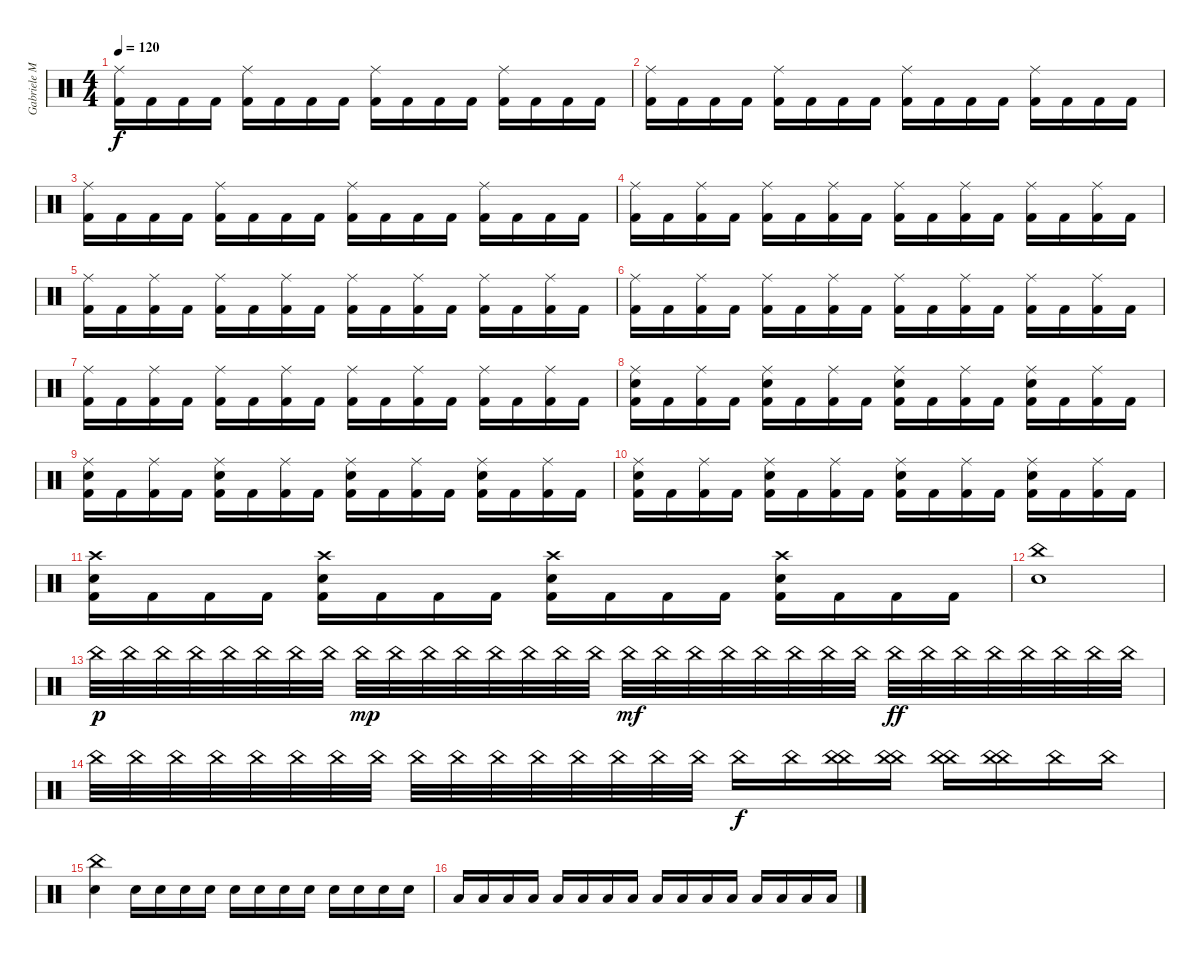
\track ("Gabriele Malatesta" "Gabriele M") {instrument percussion}
\staff {score}
\articulation defaults
\ts (4 4)
\tempo 120
\clef neutral
\ks c
("Ride (middle)" "Kick (hit) 2").16{dy f} "Kick (hit) 2".16 "Kick (hit) 2".16 "Kick (hit) 2".16 ("Ride (middle)" "Kick (hit) 2").16 "Kick (hit) 2".16 "Kick (hit) 2".16 "Kick (hit) 2".16 ("Ride (middle)" "Kick (hit) 2").16 "Kick (hit) 2".16 "Kick (hit) 2".16 "Kick (hit) 2".16 ("Ride (middle)" "Kick (hit) 2").16 "Kick (hit) 2".16 "Kick (hit) 2".16 "Kick (hit) 2".16 |
("Ride (middle)" "Kick (hit) 2").16 "Kick (hit) 2".16 "Kick (hit) 2".16 "Kick (hit) 2".16 ("Ride (middle)" "Kick (hit) 2").16 "Kick (hit) 2".16 "Kick (hit) 2".16 "Kick (hit) 2".16 ("Ride (middle)" "Kick (hit) 2").16 "Kick (hit) 2".16 "Kick (hit) 2".16 "Kick (hit) 2".16 ("Ride (middle)" "Kick (hit) 2").16 "Kick (hit) 2".16 "Kick (hit) 2".16 "Kick (hit) 2".16 |
("Ride (middle)" "Kick (hit) 2").16 "Kick (hit) 2".16 "Kick (hit) 2".16 "Kick (hit) 2".16 ("Ride (middle)" "Kick (hit) 2").16 "Kick (hit) 2".16 "Kick (hit) 2".16 "Kick (hit) 2".16 ("Ride (middle)" "Kick (hit) 2").16 "Kick (hit) 2".16 "Kick (hit) 2".16 "Kick (hit) 2".16 ("Ride (middle)" "Kick (hit) 2").16 "Kick (hit) 2".16 "Kick (hit) 2".16 "Kick (hit) 2".16 |
("Ride (middle)" "Kick (hit) 2").16 "Kick (hit) 2".16 ("Ride (middle)" "Kick (hit) 2").16 "Kick (hit) 2".16 ("Ride (middle)" "Kick (hit) 2").16 "Kick (hit) 2".16 ("Ride (middle)" "Kick (hit) 2").16 "Kick (hit) 2".16 ("Ride (middle)" "Kick (hit) 2").16 "Kick (hit) 2".16 ("Ride (middle)" "Kick (hit) 2").16 "Kick (hit) 2".16 ("Ride (middle)" "Kick (hit) 2").16 "Kick (hit) 2".16 ("Ride (middle)" "Kick (hit) 2").16 "Kick (hit) 2".16 |
("Ride (middle)" "Kick (hit) 2").16 "Kick (hit) 2".16 ("Ride (middle)" "Kick (hit) 2").16 "Kick (hit) 2".16 ("Ride (middle)" "Kick (hit) 2").16 "Kick (hit) 2".16 ("Ride (middle)" "Kick (hit) 2").16 "Kick (hit) 2".16 ("Ride (middle)" "Kick (hit) 2").16 "Kick (hit) 2".16 ("Ride (middle)" "Kick (hit) 2").16 "Kick (hit) 2".16 ("Ride (middle)" "Kick (hit) 2").16 "Kick (hit) 2".16 ("Ride (middle)" "Kick (hit) 2").16 "Kick (hit) 2".16 |
("Ride (middle)" "Kick (hit) 2").16 "Kick (hit) 2".16 ("Ride (middle)" "Kick (hit) 2").16 "Kick (hit) 2".16 ("Ride (middle)" "Kick (hit) 2").16 "Kick (hit) 2".16 ("Ride (middle)" "Kick (hit) 2").16 "Kick (hit) 2".16 ("Ride (middle)" "Kick (hit) 2").16 "Kick (hit) 2".16 ("Ride (middle)" "Kick (hit) 2").16 "Kick (hit) 2".16 ("Ride (middle)" "Kick (hit) 2").16 "Kick (hit) 2".16 ("Ride (middle)" "Kick (hit) 2").16 "Kick (hit) 2".16 |
("Ride (middle)" "Kick (hit) 2").16 "Kick (hit) 2".16 ("Ride (middle)" "Kick (hit) 2").16 "Kick (hit) 2".16 ("Ride (middle)" "Kick (hit) 2").16 "Kick (hit) 2".16 ("Ride (middle)" "Kick (hit) 2").16 "Kick (hit) 2".16 ("Ride (middle)" "Kick (hit) 2").16 "Kick (hit) 2".16 ("Ride (middle)" "Kick (hit) 2").16 "Kick (hit) 2".16 ("Ride (middle)" "Kick (hit) 2").16 "Kick (hit) 2".16 ("Ride (middle)" "Kick (hit) 2").16 "Kick (hit) 2".16 |
("Ride (middle)" "Electric Snare (hit)" "Kick (hit) 2").16 "Kick (hit) 2".16 ("Ride (middle)" "Kick (hit) 2").16 "Kick (hit) 2".16 ("Ride (middle)" "Electric Snare (hit)" "Kick (hit) 2").16 "Kick (hit) 2".16 ("Ride (middle)" "Kick (hit) 2").16 "Kick (hit) 2".16 ("Ride (middle)" "Electric Snare (hit)" "Kick (hit) 2").16 "Kick (hit) 2".16 ("Ride (middle)" "Kick (hit) 2").16 "Kick (hit) 2".16 ("Ride (middle)" "Electric Snare (hit)" "Kick (hit) 2").16 "Kick (hit) 2".16 ("Ride (middle)" "Kick (hit) 2").16 "Kick (hit) 2".16 |
("Ride (middle)" "Electric Snare (hit)" "Kick (hit) 2").16 "Kick (hit) 2".16 ("Ride (middle)" "Kick (hit) 2").16 "Kick (hit) 2".16 ("Ride (middle)" "Electric Snare (hit)" "Kick (hit) 2").16 "Kick (hit) 2".16 ("Ride (middle)" "Kick (hit) 2").16 "Kick (hit) 2".16 ("Ride (middle)" "Electric Snare (hit)" "Kick (hit) 2").16 "Kick (hit) 2".16 ("Ride (middle)" "Kick (hit) 2").16 "Kick (hit) 2".16 ("Ride (middle)" "Electric Snare (hit)" "Kick (hit) 2").16 "Kick (hit) 2".16 ("Ride (middle)" "Kick (hit) 2").16 "Kick (hit) 2".16 |
("Ride (middle)" "Electric Snare (hit)" "Kick (hit) 2").16 "Kick (hit) 2".16 ("Ride (middle)" "Kick (hit) 2").16 "Kick (hit) 2".16 ("Ride (middle)" "Electric Snare (hit)" "Kick (hit) 2").16 "Kick (hit) 2".16 ("Ride (middle)" "Kick (hit) 2").16 "Kick (hit) 2".16 ("Ride (middle)" "Electric Snare (hit)" "Kick (hit) 2").16 "Kick (hit) 2".16 ("Ride (middle)" "Kick (hit) 2").16 "Kick (hit) 2".16 ("Ride (middle)" "Electric Snare (hit)" "Kick (hit) 2").16 "Kick (hit) 2".16 ("Ride (middle)" "Kick (hit) 2").16 "Kick (hit) 2".16 |
("Crash high (hit)" "Electric Snare (hit)" "Kick (hit) 2").16 "Kick (hit) 2".16 "Kick (hit) 2".16 "Kick (hit) 2".16 ("Crash high (hit)" "Electric Snare (hit)" "Kick (hit) 2").16 "Kick (hit) 2".16 "Kick (hit) 2".16 "Kick (hit) 2".16 ("Crash high (hit)" "Electric Snare (hit)" "Kick (hit) 2").16 "Kick (hit) 2".16 "Kick (hit) 2".16 "Kick (hit) 2".16 ("Crash high (hit)" "Electric Snare (hit)" "Kick (hit) 2").16 "Kick (hit) 2".16 "Kick (hit) 2".16 "Kick (hit) 2".16 |
("China (hit)" "Electric Snare (hit)").1 |
"China (hit)".32{dy p} "China (hit)".32 "China (hit)".32 "China (hit)".32 "China (hit)".32 "China (hit)".32 "China (hit)".32 "China (hit)".32 "China (hit)".32{dy mp} "China (hit)".32 "China (hit)".32 "China (hit)".32 "China (hit)".32 "China (hit)".32 "China (hit)".32 "China (hit)".32 "China (hit)".32{dy mf} "China (hit)".32 "China (hit)".32 "China (hit)".32 "China (hit)".32 "China (hit)".32 "China (hit)".32 "China (hit)".32 "China (hit)".32{dy ff} "China (hit)".32 "China (hit)".32 "China (hit)".32 "China (hit)".32 "China (hit)".32 "China (hit)".32 "China (hit)".32 |
"China (hit)".32 "China (hit)".32 "China (hit)".32 "China (hit)".32 "China (hit)".32 "China (hit)".32 "China (hit)".32 "China (hit)".32 "China (hit)".32 "China (hit)".32 "China (hit)".32 "China (hit)".32 "China (hit)".32 "China (hit)".32 "China (hit)".32 "China (hit)".32 "China (hit)".16{dy f} "China (hit)".16 ("China (hit)" "China (hit)").16 ("China (hit)" "China (hit)").16 ("China (hit)" "China (hit)").16 ("China (hit)" "China (hit)").16 "China (hit)".16 "China (hit)".16 |
("China (hit)" "Electric Snare (hit)").4 "Electric Snare (hit)".16 "Electric Snare (hit)".16 "Electric Snare (hit)".16 "Electric Snare (hit)".16 "Electric Snare (hit)".16 "Electric Snare (hit)".16 "Electric Snare (hit)".16 "Electric Snare (hit)".16 "Electric Snare (hit)".16 "Electric Snare (hit)".16 "Electric Snare (hit)".16 "Electric Snare (hit)".16 |
"Low Tom (hit)".16 "Low Tom (hit)".16 "Low Tom (hit)".16 "Low Tom (hit)".16 "Low Tom (hit)".16 "Low Tom (hit)".16 "Low Tom (hit)".16 "Low Tom (hit)".16 "Low Tom (hit)".16 "Low Tom (hit)".16 "Low Tom (hit)".16 "Low Tom (hit)".16 "Low Tom (hit)".16 "Low Tom (hit)".16 "Low Tom (hit)".16 "Low Tom (hit)".16
